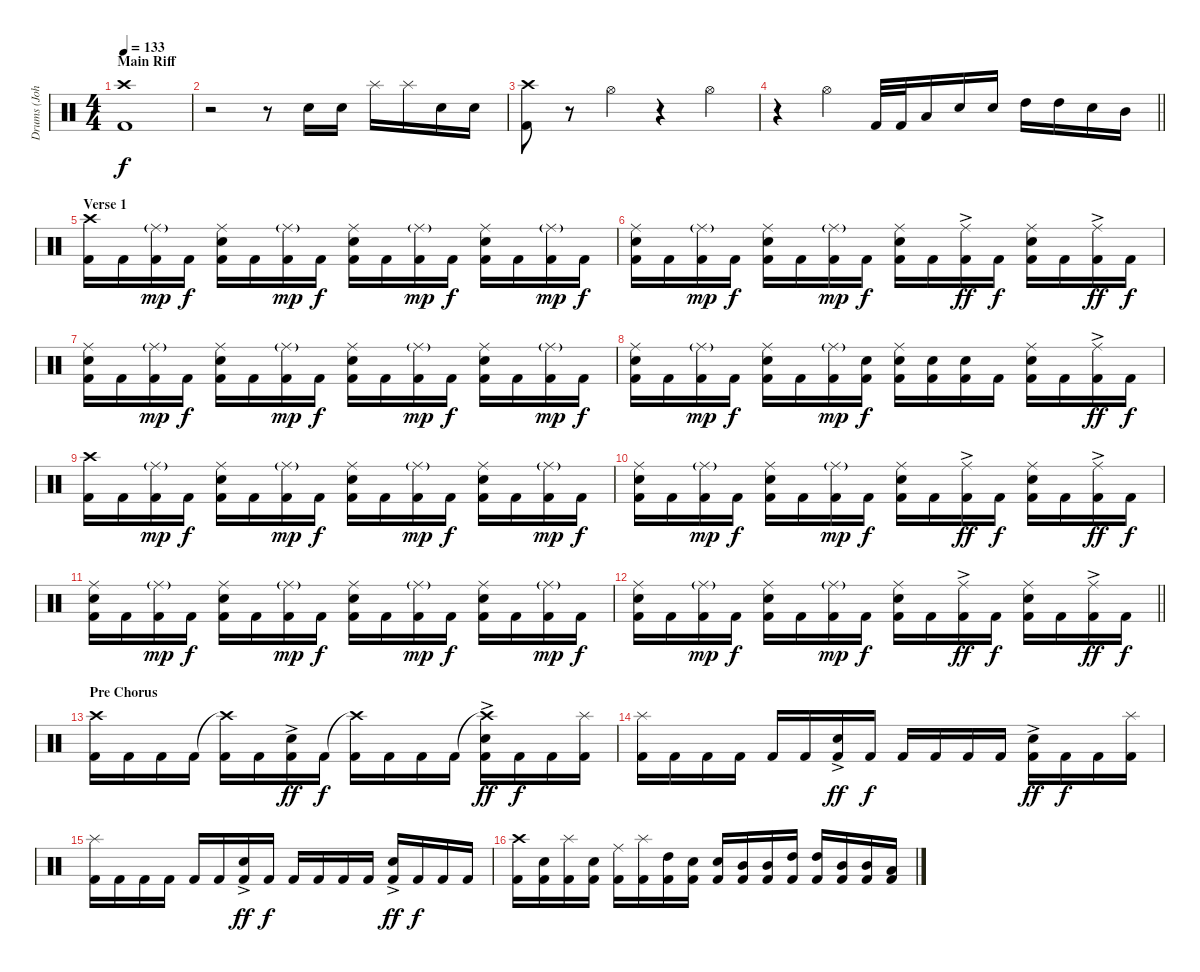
\track ("Drums (John)" "Drums (Joh") {instrument percussion}
\staff {score}
\articulation defaults
\ts (4 4)
\section ("" "Main Riff")
\tempo 133
\clef neutral
\ks c
("Crash high (hit)" "Kick (hit) 2").1{dy f} |
r.2 r.8 "Electric Snare (hit)".16 "Electric Snare (hit)".16 "Splash (hit)".16 "Splash (hit)".16 "Electric Snare (hit)".16 "Electric Snare (hit)".16 |
("Crash high (hit)" "Kick (hit) 2").8 r.8 "Hi-Hat (open)".4 r.4 "Hi-Hat (open)".4 |
\barLineRight lightlight
r.4 "Hi-Hat (open)".4 "Kick (hit) 2".32 "Kick (hit) 2".32 "Low Tom (hit)".16 "Electric Snare (hit)".16 "Electric Snare (hit)".16 "High Tom (hit)".16 "High Tom (hit)".16 "Electric Snare (hit)".16 "Mid Tom (hit)".16 |
\section ("" "Verse 1")
("Crash high (hit)" "Kick (hit) 2").16 "Kick (hit) 2".16 ("Ride (middle)"{g} "Kick (hit) 2").16{dy mp} "Kick (hit) 2".16{dy f} ("Ride (middle)" "Electric Snare (hit)" "Kick (hit) 2").16 "Kick (hit) 2".16 ("Ride (middle)"{g} "Kick (hit) 2").16{dy mp} "Kick (hit) 2".16{dy f} ("Ride (middle)" "Electric Snare (hit)" "Kick (hit) 2").16 "Kick (hit) 2".16 ("Ride (middle)"{g} "Kick (hit) 2").16{dy mp} "Kick (hit) 2".16{dy f} ("Ride (middle)" "Electric Snare (hit)" "Kick (hit) 2").16 "Kick (hit) 2".16 ("Ride (middle)"{g} "Kick (hit) 2").16{dy mp} "Kick (hit) 2".16{dy f} |
("Ride (middle)" "Electric Snare (hit)" "Kick (hit) 2").16 "Kick (hit) 2".16 ("Ride (middle)"{g} "Kick (hit) 2").16{dy mp} "Kick (hit) 2".16{dy f} ("Ride (middle)" "Electric Snare (hit)" "Kick (hit) 2").16 "Kick (hit) 2".16 ("Ride (middle)"{g} "Kick (hit) 2").16{dy mp} "Kick (hit) 2".16{dy f} ("Ride (middle)" "Electric Snare (hit)" "Kick (hit) 2").16 "Kick (hit) 2".16 ("Ride (middle)"{ac} "Kick (hit) 2").16{dy ff} "Kick (hit) 2".16{dy f} ("Ride (middle)" "Electric Snare (hit)" "Kick (hit) 2").16 "Kick (hit) 2".16 ("Ride (middle)"{ac} "Kick (hit) 2").16{dy ff} "Kick (hit) 2".16{dy f} |
("Ride (middle)" "Electric Snare (hit)" "Kick (hit) 2").16 "Kick (hit) 2".16 ("Ride (middle)"{g} "Kick (hit) 2").16{dy mp} "Kick (hit) 2".16{dy f} ("Ride (middle)" "Electric Snare (hit)" "Kick (hit) 2").16 "Kick (hit) 2".16 ("Ride (middle)"{g} "Kick (hit) 2").16{dy mp} "Kick (hit) 2".16{dy f} ("Ride (middle)" "Electric Snare (hit)" "Kick (hit) 2").16 "Kick (hit) 2".16 ("Ride (middle)"{g} "Kick (hit) 2").16{dy mp} "Kick (hit) 2".16{dy f} ("Ride (middle)" "Electric Snare (hit)" "Kick (hit) 2").16 "Kick (hit) 2".16 ("Ride (middle)"{g} "Kick (hit) 2").16{dy mp} "Kick (hit) 2".16{dy f} |
("Ride (middle)" "Electric Snare (hit)" "Kick (hit) 2").16 "Kick (hit) 2".16 ("Ride (middle)"{g} "Kick (hit) 2").16{dy mp} "Kick (hit) 2".16{dy f} ("Ride (middle)" "Electric Snare (hit)" "Kick (hit) 2").16 "Kick (hit) 2".16 ("Ride (middle)"{g} "Kick (hit) 2").16{dy mp} ("Electric Snare (hit)" "Kick (hit) 2").16{dy f} ("Ride (middle)" "Electric Snare (hit)" "Kick (hit) 2").16 ("Electric Snare (hit)" "Kick (hit) 2").16 ("Electric Snare (hit)" "Kick (hit) 2").16 "Kick (hit) 2".16 ("Ride (middle)" "Electric Snare (hit)" "Kick (hit) 2").16 "Kick (hit) 2".16 ("Ride (middle)"{ac} "Kick (hit) 2").16{dy ff} "Kick (hit) 2".16{dy f} |
("Crash high (hit)" "Kick (hit) 2").16 "Kick (hit) 2".16 ("Ride (middle)"{g} "Kick (hit) 2").16{dy mp} "Kick (hit) 2".16{dy f} ("Ride (middle)" "Electric Snare (hit)" "Kick (hit) 2").16 "Kick (hit) 2".16 ("Ride (middle)"{g} "Kick (hit) 2").16{dy mp} "Kick (hit) 2".16{dy f} ("Ride (middle)" "Electric Snare (hit)" "Kick (hit) 2").16 "Kick (hit) 2".16 ("Ride (middle)"{g} "Kick (hit) 2").16{dy mp} "Kick (hit) 2".16{dy f} ("Ride (middle)" "Electric Snare (hit)" "Kick (hit) 2").16 "Kick (hit) 2".16 ("Ride (middle)"{g} "Kick (hit) 2").16{dy mp} "Kick (hit) 2".16{dy f} |
("Ride (middle)" "Electric Snare (hit)" "Kick (hit) 2").16 "Kick (hit) 2".16 ("Ride (middle)"{g} "Kick (hit) 2").16{dy mp} "Kick (hit) 2".16{dy f} ("Ride (middle)" "Electric Snare (hit)" "Kick (hit) 2").16 "Kick (hit) 2".16 ("Ride (middle)"{g} "Kick (hit) 2").16{dy mp} "Kick (hit) 2".16{dy f} ("Ride (middle)" "Electric Snare (hit)" "Kick (hit) 2").16 "Kick (hit) 2".16 ("Ride (middle)"{ac} "Kick (hit) 2").16{dy ff} "Kick (hit) 2".16{dy f} ("Ride (middle)" "Electric Snare (hit)" "Kick (hit) 2").16 "Kick (hit) 2".16 ("Ride (middle)"{ac} "Kick (hit) 2").16{dy ff} "Kick (hit) 2".16{dy f} |
("Ride (middle)" "Electric Snare (hit)" "Kick (hit) 2").16 "Kick (hit) 2".16 ("Ride (middle)"{g} "Kick (hit) 2").16{dy mp} "Kick (hit) 2".16{dy f} ("Ride (middle)" "Electric Snare (hit)" "Kick (hit) 2").16 "Kick (hit) 2".16 ("Ride (middle)"{g} "Kick (hit) 2").16{dy mp} "Kick (hit) 2".16{dy f} ("Ride (middle)" "Electric Snare (hit)" "Kick (hit) 2").16 "Kick (hit) 2".16 ("Ride (middle)"{g} "Kick (hit) 2").16{dy mp} "Kick (hit) 2".16{dy f} ("Ride (middle)" "Electric Snare (hit)" "Kick (hit) 2").16 "Kick (hit) 2".16 ("Ride (middle)"{g} "Kick (hit) 2").16{dy mp} "Kick (hit) 2".16{dy f} |
\barLineRight lightlight
("Ride (middle)" "Electric Snare (hit)" "Kick (hit) 2").16 "Kick (hit) 2".16 ("Ride (middle)"{g} "Kick (hit) 2").16{dy mp} "Kick (hit) 2".16{dy f} ("Ride (middle)" "Electric Snare (hit)" "Kick (hit) 2").16 "Kick (hit) 2".16 ("Ride (middle)"{g} "Kick (hit) 2").16{dy mp} "Kick (hit) 2".16{dy f} ("Ride (middle)" "Electric Snare (hit)" "Kick (hit) 2").16 "Kick (hit) 2".16 ("Ride (middle)"{ac} "Kick (hit) 2").16{dy ff} "Kick (hit) 2".16{dy f} ("Ride (middle)" "Electric Snare (hit)" "Kick (hit) 2").16 "Kick (hit) 2".16 ("Ride (middle)"{ac} "Kick (hit) 2").16{dy ff} "Kick (hit) 2".16{dy f} |
\section ("" "Pre Chorus")
("Crash high (hit)" "Kick (hit) 2").16 "Kick (hit) 2".16 "Kick (hit) 2".16 "Kick (hit) 2".16 ("Crash high (hit)"{t} "Kick (hit) 2").16 "Kick (hit) 2".16 ("Electric Snare (hit)"{ac} "Kick (hit) 2").16{dy ff} "Kick (hit) 2".16{dy f} ("Crash high (hit)"{t} "Kick (hit) 2").16 "Kick (hit) 2".16 "Kick (hit) 2".16 "Kick (hit) 2".16 ("Crash high (hit)"{t} "Electric Snare (hit)"{ac} "Kick (hit) 2").16{dy ff} "Kick (hit) 2".16{dy f} "Kick (hit) 2".16 ("Splash (hit)" "Kick (hit) 2").16 |
("Splash (hit)" "Kick (hit) 2").16 "Kick (hit) 2".16 "Kick (hit) 2".16 "Kick (hit) 2".16 "Kick (hit) 2".16 "Kick (hit) 2".16 ("Electric Snare (hit)"{ac} "Kick (hit) 2").16{dy ff} "Kick (hit) 2".16{dy f} "Kick (hit) 2".16 "Kick (hit) 2".16 "Kick (hit) 2".16 "Kick (hit) 2".16 ("Electric Snare (hit)"{ac} "Kick (hit) 2").16{dy ff} "Kick (hit) 2".16{dy f} "Kick (hit) 2".16 ("Splash (hit)" "Kick (hit) 2").16 |
("Splash (hit)" "Kick (hit) 2").16 "Kick (hit) 2".16 "Kick (hit) 2".16 "Kick (hit) 2".16 "Kick (hit) 2".16 "Kick (hit) 2".16 ("Electric Snare (hit)"{ac} "Kick (hit) 2").16{dy ff} "Kick (hit) 2".16{dy f} "Kick (hit) 2".16 "Kick (hit) 2".16 "Kick (hit) 2".16 "Kick (hit) 2".16 ("Electric Snare (hit)"{ac} "Kick (hit) 2").16{dy ff} "Kick (hit) 2".16{dy f} "Kick (hit) 2".16 "Kick (hit) 2".16 |
("Crash high (hit)" "Kick (hit) 2").16 ("Electric Snare (hit)" "Kick (hit) 2").16 ("Splash (hit)" "Kick (hit) 2").16 ("Electric Snare (hit)" "Kick (hit) 2").16 ("Ride (middle)" "Kick (hit) 2").16 ("Splash (hit)" "Kick (hit) 2").16 ("High Tom (hit)" "Kick (hit) 2").16 ("Electric Snare (hit)" "Kick (hit) 2").16 ("Electric Snare (hit)" "Kick (hit) 2").16 ("Mid Tom (hit)" "Kick (hit) 2").16 ("Mid Tom (hit)" "Kick (hit) 2").16 ("High Tom (hit)" "Kick (hit) 2").16 ("High Tom (hit)" "Kick (hit) 2").16 ("Mid Tom (hit)" "Kick (hit) 2").16 ("Mid Tom (hit)" "Kick (hit) 2").16 ("Low Tom (hit)" "Kick (hit) 2").16
